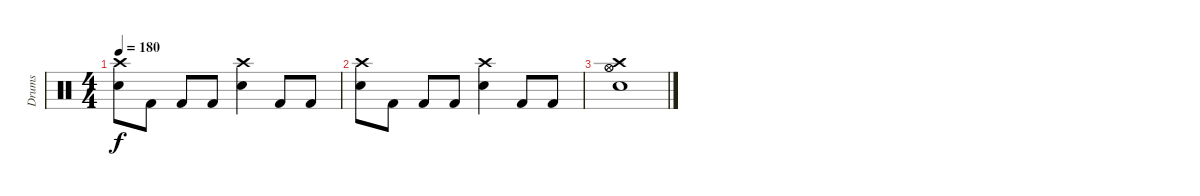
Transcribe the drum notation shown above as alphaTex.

\track ("Drums" "Drums") {instrument percussion}
\staff {score}
\articulation defaults
\ts (4 4)
\tempo 180
\clef neutral
\ks c
("Crash high (hit)" "Snare (hit) 2").8{dy f} "Kick (hit) 2".8 "Kick (hit) 2".8 "Kick (hit) 2".8 ("Crash high (hit)" "Snare (hit) 2").4 "Kick (hit) 2".8 "Kick (hit) 2".8 |
("Crash high (hit)" "Snare (hit) 2").8 "Kick (hit) 2".8 "Kick (hit) 2".8 "Kick (hit) 2".8 ("Crash high (hit)" "Snare (hit) 2").4 "Kick (hit) 2".8 "Kick (hit) 2".8 |
("Hi-Hat (open)" "Snare (hit) 2" "Hi-Hat (open)" "Crash high (hit)").1
